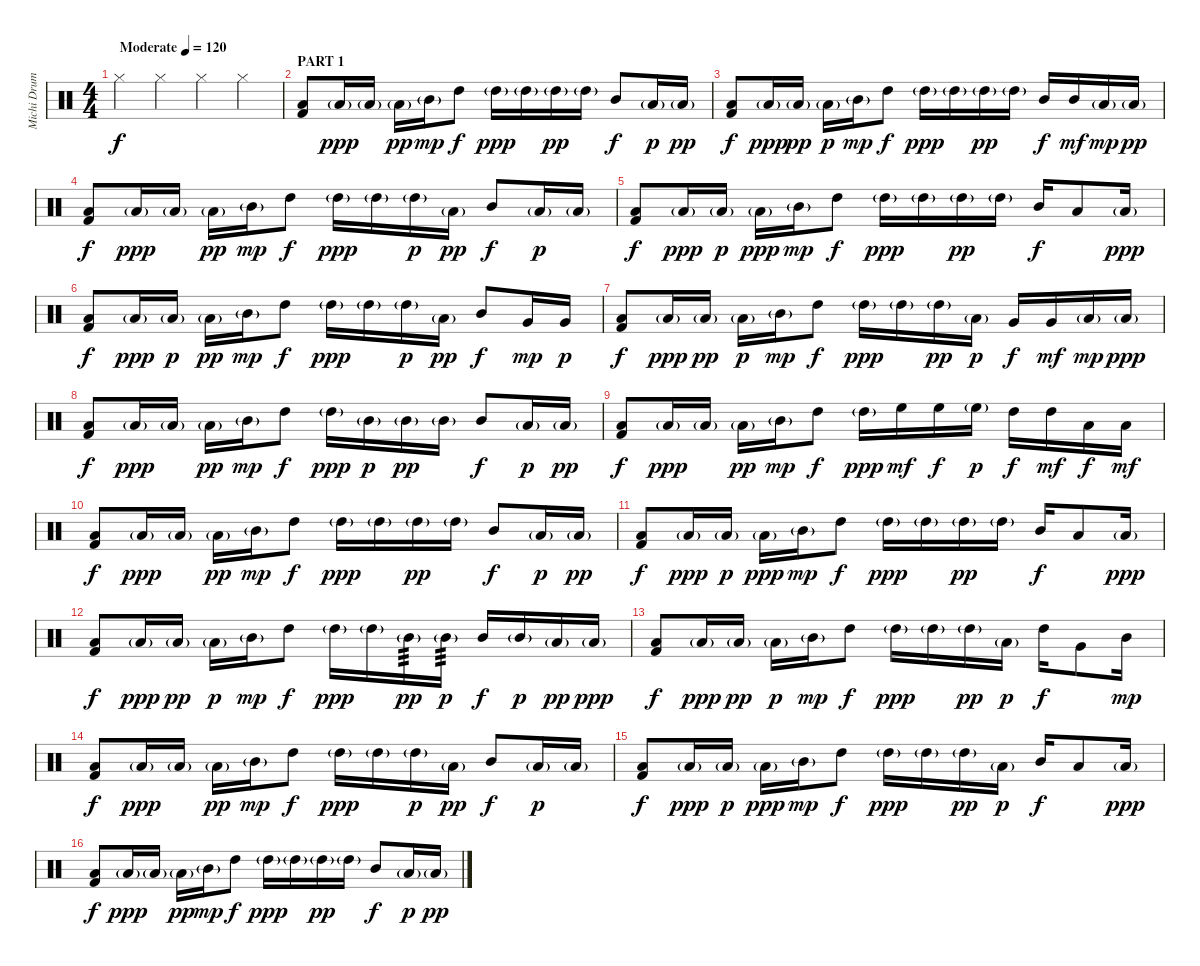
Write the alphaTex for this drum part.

\track ("Michi Drums" "Michi Drum") {instrument percussion}
\staff {score}
\articulation defaults
\ts (4 4)
\tempo (120 "Moderate")
\clef neutral
\ks c "Hi-Hat (closed)".4{dy f} "Hi-Hat (closed)".4 "Hi-Hat (closed)".4 "Hi-Hat (closed)".4
|
\section ("" "PART 1")
("Low Floor Tom (hit)" "Kick (hit) 2").8 "Low Floor Tom (hit)"{g}.16{dy ppp} "Low Tom (hit)"{g}.16 "Low Tom (hit)"{g}.16{dy pp} "Mid Tom (hit)"{g}.16{dy mp} "High Tom (hit)".8{dy f} "High Tom (hit)"{g}.16{dy ppp} "High Tom (hit)"{g}.16 "High Tom (hit)"{g}.16{dy pp} "High Tom (hit)"{g}.16 "Mid Tom (hit)".8{dy f} "Low Tom (hit)"{g}.16{dy p} "Low Tom (hit)"{g}.16{dy pp} |
("Low Floor Tom (hit)" "Kick (hit) 2").8{dy f} "Low Floor Tom (hit)"{g}.16{dy ppp} "Low Tom (hit)"{g}.16{dy pp} "Low Tom (hit)"{g}.16{dy p} "Mid Tom (hit)"{g}.16{dy mp} "High Tom (hit)".8{dy f} "High Tom (hit)"{g}.16{dy ppp} "High Tom (hit)"{g}.16 "High Tom (hit)"{g}.16{dy pp} "High Tom (hit)"{g}.16 "Mid Tom (hit)".16{dy f} "Mid Tom (hit)".16{dy mf} "Low Tom (hit)"{g}.16{dy mp} "Low Tom (hit)"{g}.16{dy pp} |
("Low Floor Tom (hit)" "Kick (hit) 2").8{dy f} "Low Floor Tom (hit)"{g}.16{dy ppp} "Low Tom (hit)"{g}.16 "Low Tom (hit)"{g}.16{dy pp} "Mid Tom (hit)"{g}.16{dy mp} "High Tom (hit)".8{dy f} "High Tom (hit)"{g}.16{dy ppp} "High Tom (hit)"{g}.16 "High Tom (hit)"{g}.16{dy p} "Low Tom (hit)"{g}.16{dy pp} "Mid Tom (hit)".8{dy f} "Low Tom (hit)"{g}.16{dy p} "Low Tom (hit)"{g}.16 |
("Low Floor Tom (hit)" "Kick (hit) 2").8{dy f} "Low Floor Tom (hit)"{g}.16{dy ppp} "Low Tom (hit)"{g}.16{dy p} "Low Tom (hit)"{g}.16{dy ppp} "Mid Tom (hit)"{g}.16{dy mp} "High Tom (hit)".8{dy f} "High Tom (hit)"{g}.16{dy ppp} "High Tom (hit)"{g}.16 "High Tom (hit)"{g}.16{dy pp} "High Tom (hit)"{g}.16 "Mid Tom (hit)".16{dy f} "Low Floor Tom (hit)".8 "Low Floor Tom (hit)"{g}.16{dy ppp} |
("Low Floor Tom (hit)" "Kick (hit) 2").8{dy f} "Low Floor Tom (hit)"{g}.16{dy ppp} "Low Tom (hit)"{g}.16{dy p} "Low Tom (hit)"{g}.16{dy pp} "Mid Tom (hit)"{g}.16{dy mp} "High Tom (hit)".8{dy f} "High Tom (hit)"{g}.16{dy ppp} "High Tom (hit)"{g}.16 "High Tom (hit)"{g}.16{dy p} "Low Tom (hit)"{g}.16{dy pp} "Mid Tom (hit)".8{dy f} "Very Low Tom (hit)".16{dy mp} "Very Low Tom (hit)".16{dy p} |
("Low Floor Tom (hit)" "Kick (hit) 2").8{dy f} "Low Floor Tom (hit)"{g}.16{dy ppp} "Low Tom (hit)"{g}.16{dy pp} "Low Tom (hit)"{g}.16{dy p} "Mid Tom (hit)"{g}.16{dy mp} "High Tom (hit)".8{dy f} "High Tom (hit)"{g}.16{dy ppp} "High Tom (hit)"{g}.16 "High Tom (hit)"{g}.16{dy pp} "Low Tom (hit)"{g}.16{dy p} "Very Low Tom (hit)".16{dy f} "Very Low Tom (hit)".16{dy mf} "Low Floor Tom (hit)"{g}.16{dy mp} "Low Floor Tom (hit)"{g}.16{dy ppp} |
("Low Floor Tom (hit)" "Kick (hit) 2").8{dy f} "Low Floor Tom (hit)"{g}.16{dy ppp} "Low Tom (hit)"{g}.16 "Low Tom (hit)"{g}.16{dy pp} "Mid Tom (hit)"{g}.16{dy mp} "High Tom (hit)".8{dy f} "High Tom (hit)"{g}.16{dy ppp} "Mid Tom (hit)"{g}.16{dy p} "Mid Tom (hit)"{g}.16{dy pp} "Mid Tom (hit)"{g}.16 "Mid Tom (hit)".8{dy f} "Low Tom (hit)"{g}.16{dy p} "Low Tom (hit)"{g}.16{dy pp} |
("Low Floor Tom (hit)" "Kick (hit) 2").8{dy f} "Low Floor Tom (hit)"{g}.16{dy ppp} "Low Tom (hit)"{g}.16 "Low Tom (hit)"{g}.16{dy pp} "Mid Tom (hit)"{g}.16{dy mp} "High Tom (hit)".8{dy f} "High Tom (hit)"{g}.16{dy ppp} "High Floor Tom (hit)".16{dy mf} "High Floor Tom (hit)".16{dy f} "High Floor Tom (hit)"{g}.16{dy p} "High Tom (hit)".16{dy f} "High Tom (hit)".16{dy mf} "Low Tom (hit)".16{dy f} "Low Tom (hit)".16{dy mf} |
("Low Floor Tom (hit)" "Kick (hit) 2").8{dy f} "Low Floor Tom (hit)"{g}.16{dy ppp} "Low Tom (hit)"{g}.16 "Low Tom (hit)"{g}.16{dy pp} "Mid Tom (hit)"{g}.16{dy mp} "High Tom (hit)".8{dy f} "High Tom (hit)"{g}.16{dy ppp} "High Tom (hit)"{g}.16 "High Tom (hit)"{g}.16{dy pp} "High Tom (hit)"{g}.16 "Mid Tom (hit)".8{dy f} "Low Tom (hit)"{g}.16{dy p} "Low Tom (hit)"{g}.16{dy pp} |
("Low Floor Tom (hit)" "Kick (hit) 2").8{dy f} "Low Floor Tom (hit)"{g}.16{dy ppp} "Low Tom (hit)"{g}.16{dy p} "Low Tom (hit)"{g}.16{dy ppp} "Mid Tom (hit)"{g}.16{dy mp} "High Tom (hit)".8{dy f} "High Tom (hit)"{g}.16{dy ppp} "High Tom (hit)"{g}.16 "High Tom (hit)"{g}.16{dy pp} "High Tom (hit)"{g}.16 "Mid Tom (hit)".16{dy f} "Low Tom (hit)".8 "Low Tom (hit)"{g}.16{dy ppp} |
("Low Floor Tom (hit)" "Kick (hit) 2").8{dy f} "Low Floor Tom (hit)"{g}.16{dy ppp} "Low Tom (hit)"{g}.16{dy pp} "Low Tom (hit)"{g}.16{dy p} "Mid Tom (hit)"{g}.16{dy mp} "High Tom (hit)".8{dy f} "High Tom (hit)"{g}.16{dy ppp} "High Tom (hit)"{g}.16 "Mid Tom (hit)"{g}.16{tp 3 dy pp} "Mid Tom (hit)"{g}.16{tp 3 dy p} "Mid Tom (hit)".16{dy f} "Mid Tom (hit)"{g}.16{dy p} "Low Tom (hit)"{g}.16{dy pp} "Low Tom (hit)"{g}.16{dy ppp} |
("Low Floor Tom (hit)" "Kick (hit) 2").8{dy f} "Low Floor Tom (hit)"{g}.16{dy ppp} "Low Tom (hit)"{g}.16{dy pp} "Low Tom (hit)"{g}.16{dy p} "Mid Tom (hit)"{g}.16{dy mp} "High Tom (hit)".8{dy f} "High Tom (hit)"{g}.16{dy ppp} "High Tom (hit)"{g}.16 "High Tom (hit)"{g}.16{dy pp} "Low Tom (hit)"{g}.16{dy p} "High Tom (hit)".16{dy f} "Very Low Tom (hit)".8 "Mid Tom (hit)".16{dy mp} |
("Low Floor Tom (hit)" "Kick (hit) 2").8{dy f} "Low Floor Tom (hit)"{g}.16{dy ppp} "Low Tom (hit)"{g}.16 "Low Tom (hit)"{g}.16{dy pp} "Mid Tom (hit)"{g}.16{dy mp} "High Tom (hit)".8{dy f} "High Tom (hit)"{g}.16{dy ppp} "High Tom (hit)"{g}.16 "High Tom (hit)"{g}.16{dy p} "Low Tom (hit)"{g}.16{dy pp} "Mid Tom (hit)".8{dy f} "Low Tom (hit)"{g}.16{dy p} "Low Tom (hit)"{g}.16 |
("Low Floor Tom (hit)" "Kick (hit) 2").8{bd 120 dy f} "Low Floor Tom (hit)"{g}.16{dy ppp} "Low Tom (hit)"{g}.16{dy p} "Low Tom (hit)"{g}.16{dy ppp} "Mid Tom (hit)"{g}.16{dy mp} "High Tom (hit)".8{dy f} "High Tom (hit)"{g}.16{dy ppp} "High Tom (hit)"{g}.16 "High Tom (hit)"{g}.16{dy pp} "Low Tom (hit)"{g}.16{dy p} "Mid Tom (hit)".16{dy f} "Low Floor Tom (hit)".8 "Low Floor Tom (hit)"{g}.16{dy ppp} |
("Low Floor Tom (hit)" "Kick (hit) 2").8{dy f} "Low Floor Tom (hit)"{g}.16{dy ppp} "Low Tom (hit)"{g}.16 "Low Tom (hit)"{g}.16{dy pp} "Mid Tom (hit)"{g}.16{dy mp} "High Tom (hit)".8{dy f} "High Tom (hit)"{g}.16{dy ppp} "High Tom (hit)"{g}.16 "High Tom (hit)"{g}.16{dy pp} "High Tom (hit)"{g}.16 "Mid Tom (hit)".8{dy f} "Low Tom (hit)"{g}.16{dy p} "Low Tom (hit)"{g}.16{dy pp}
